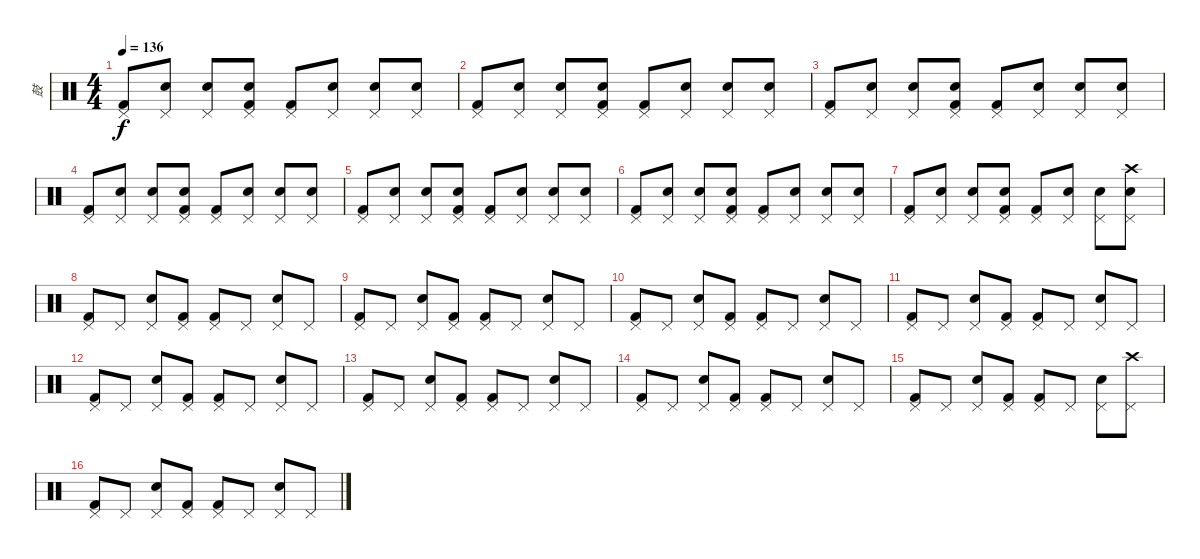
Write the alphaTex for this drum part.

\track ("鼓" "鼓") {instrument percussion}
\staff {score}
\articulation defaults
\ts (4 4)
\tempo 136
\clef neutral
\ks c
("Pedal Hi-Hat (hit)" "Kick (hit) 2").8{dy f} ("Metronome (bell)" "Pedal Hi-Hat (hit)").8 ("Pedal Hi-Hat (hit)" "Electric Snare (hit)").8 ("Metronome (bell)" "Pedal Hi-Hat (hit)" "Kick (hit) 2").8 ("Pedal Hi-Hat (hit)" "Kick (hit) 2").8 ("Metronome (bell)" "Pedal Hi-Hat (hit)").8 ("Pedal Hi-Hat (hit)" "Electric Snare (hit)").8 ("Metronome (bell)" "Pedal Hi-Hat (hit)").8 |
("Pedal Hi-Hat (hit)" "Kick (hit) 2").8 ("Metronome (bell)" "Pedal Hi-Hat (hit)").8 ("Pedal Hi-Hat (hit)" "Electric Snare (hit)").8 ("Metronome (bell)" "Pedal Hi-Hat (hit)" "Kick (hit) 2").8 ("Pedal Hi-Hat (hit)" "Kick (hit) 2").8 ("Metronome (bell)" "Pedal Hi-Hat (hit)").8 ("Pedal Hi-Hat (hit)" "Electric Snare (hit)").8 ("Metronome (bell)" "Pedal Hi-Hat (hit)").8 |
("Pedal Hi-Hat (hit)" "Kick (hit) 2").8 ("Metronome (bell)" "Pedal Hi-Hat (hit)").8 ("Pedal Hi-Hat (hit)" "Electric Snare (hit)").8 ("Metronome (bell)" "Pedal Hi-Hat (hit)" "Kick (hit) 2").8 ("Pedal Hi-Hat (hit)" "Kick (hit) 2").8 ("Metronome (bell)" "Pedal Hi-Hat (hit)").8 ("Pedal Hi-Hat (hit)" "Electric Snare (hit)").8 ("Metronome (bell)" "Pedal Hi-Hat (hit)").8 |
("Pedal Hi-Hat (hit)" "Kick (hit) 2").8 ("Metronome (bell)" "Pedal Hi-Hat (hit)").8 ("Pedal Hi-Hat (hit)" "Electric Snare (hit)").8 ("Metronome (bell)" "Pedal Hi-Hat (hit)" "Kick (hit) 2").8 ("Pedal Hi-Hat (hit)" "Kick (hit) 2").8 ("Metronome (bell)" "Pedal Hi-Hat (hit)").8 ("Pedal Hi-Hat (hit)" "Electric Snare (hit)").8 ("Metronome (bell)" "Pedal Hi-Hat (hit)").8 |
("Pedal Hi-Hat (hit)" "Kick (hit) 2").8 ("Metronome (bell)" "Pedal Hi-Hat (hit)").8 ("Pedal Hi-Hat (hit)" "Electric Snare (hit)").8 ("Metronome (bell)" "Pedal Hi-Hat (hit)" "Kick (hit) 2").8 ("Pedal Hi-Hat (hit)" "Kick (hit) 2").8 ("Metronome (bell)" "Pedal Hi-Hat (hit)").8 ("Pedal Hi-Hat (hit)" "Electric Snare (hit)").8 ("Metronome (bell)" "Pedal Hi-Hat (hit)").8 |
("Pedal Hi-Hat (hit)" "Kick (hit) 2").8 ("Metronome (bell)" "Pedal Hi-Hat (hit)").8 ("Pedal Hi-Hat (hit)" "Electric Snare (hit)").8 ("Metronome (bell)" "Pedal Hi-Hat (hit)" "Kick (hit) 2").8 ("Pedal Hi-Hat (hit)" "Kick (hit) 2").8 ("Metronome (bell)" "Pedal Hi-Hat (hit)").8 ("Pedal Hi-Hat (hit)" "Electric Snare (hit)").8 ("Metronome (bell)" "Pedal Hi-Hat (hit)").8 |
("Pedal Hi-Hat (hit)" "Kick (hit) 2").8 ("Metronome (bell)" "Pedal Hi-Hat (hit)").8 ("Pedal Hi-Hat (hit)" "Electric Snare (hit)").8 ("Metronome (bell)" "Pedal Hi-Hat (hit)" "Kick (hit) 2").8 ("Pedal Hi-Hat (hit)" "Kick (hit) 2").8 ("Metronome (bell)" "Pedal Hi-Hat (hit)").8 ("Pedal Hi-Hat (hit)" "Electric Snare (hit)").8 ("Metronome (bell)" "Pedal Hi-Hat (hit)" "Crash high (hit)").8 |
("Pedal Hi-Hat (hit)" "Kick (hit) 2").8 "Pedal Hi-Hat (hit)".8 ("Pedal Hi-Hat (hit)" "Electric Snare (hit)").8 ("Pedal Hi-Hat (hit)" "Kick (hit) 2").8 ("Pedal Hi-Hat (hit)" "Kick (hit) 2").8 "Pedal Hi-Hat (hit)".8 ("Pedal Hi-Hat (hit)" "Electric Snare (hit)").8 "Pedal Hi-Hat (hit)".8 |
("Pedal Hi-Hat (hit)" "Kick (hit) 2").8 "Pedal Hi-Hat (hit)".8 ("Pedal Hi-Hat (hit)" "Electric Snare (hit)").8 ("Pedal Hi-Hat (hit)" "Kick (hit) 2").8 ("Pedal Hi-Hat (hit)" "Kick (hit) 2").8 "Pedal Hi-Hat (hit)".8 ("Pedal Hi-Hat (hit)" "Electric Snare (hit)").8 "Pedal Hi-Hat (hit)".8 |
("Pedal Hi-Hat (hit)" "Kick (hit) 2").8 "Pedal Hi-Hat (hit)".8 ("Pedal Hi-Hat (hit)" "Electric Snare (hit)").8 ("Pedal Hi-Hat (hit)" "Kick (hit) 2").8 ("Pedal Hi-Hat (hit)" "Kick (hit) 2").8 "Pedal Hi-Hat (hit)".8 ("Pedal Hi-Hat (hit)" "Electric Snare (hit)").8 "Pedal Hi-Hat (hit)".8 |
("Pedal Hi-Hat (hit)" "Kick (hit) 2").8 "Pedal Hi-Hat (hit)".8 ("Pedal Hi-Hat (hit)" "Electric Snare (hit)").8 ("Pedal Hi-Hat (hit)" "Kick (hit) 2").8 ("Pedal Hi-Hat (hit)" "Kick (hit) 2").8 "Pedal Hi-Hat (hit)".8 ("Pedal Hi-Hat (hit)" "Electric Snare (hit)").8 "Pedal Hi-Hat (hit)".8 |
("Pedal Hi-Hat (hit)" "Kick (hit) 2").8 "Pedal Hi-Hat (hit)".8 ("Pedal Hi-Hat (hit)" "Electric Snare (hit)").8 ("Pedal Hi-Hat (hit)" "Kick (hit) 2").8 ("Pedal Hi-Hat (hit)" "Kick (hit) 2").8 "Pedal Hi-Hat (hit)".8 ("Pedal Hi-Hat (hit)" "Electric Snare (hit)").8 "Pedal Hi-Hat (hit)".8 |
("Pedal Hi-Hat (hit)" "Kick (hit) 2").8 "Pedal Hi-Hat (hit)".8 ("Pedal Hi-Hat (hit)" "Electric Snare (hit)").8 ("Pedal Hi-Hat (hit)" "Kick (hit) 2").8 ("Pedal Hi-Hat (hit)" "Kick (hit) 2").8 "Pedal Hi-Hat (hit)".8 ("Pedal Hi-Hat (hit)" "Electric Snare (hit)").8 "Pedal Hi-Hat (hit)".8 |
("Pedal Hi-Hat (hit)" "Kick (hit) 2").8 "Pedal Hi-Hat (hit)".8 ("Pedal Hi-Hat (hit)" "Electric Snare (hit)").8 ("Pedal Hi-Hat (hit)" "Kick (hit) 2").8 ("Pedal Hi-Hat (hit)" "Kick (hit) 2").8 "Pedal Hi-Hat (hit)".8 ("Pedal Hi-Hat (hit)" "Electric Snare (hit)").8 "Pedal Hi-Hat (hit)".8 |
("Pedal Hi-Hat (hit)" "Kick (hit) 2").8 "Pedal Hi-Hat (hit)".8 ("Pedal Hi-Hat (hit)" "Electric Snare (hit)").8 ("Pedal Hi-Hat (hit)" "Kick (hit) 2").8 ("Pedal Hi-Hat (hit)" "Kick (hit) 2").8 "Pedal Hi-Hat (hit)".8 ("Pedal Hi-Hat (hit)" "Electric Snare (hit)").8 ("Pedal Hi-Hat (hit)" "Crash high (hit)").8 |
("Pedal Hi-Hat (hit)" "Kick (hit) 2").8 "Pedal Hi-Hat (hit)".8 ("Pedal Hi-Hat (hit)" "Electric Snare (hit)").8 ("Pedal Hi-Hat (hit)" "Kick (hit) 2").8 ("Pedal Hi-Hat (hit)" "Kick (hit) 2").8 "Pedal Hi-Hat (hit)".8 ("Pedal Hi-Hat (hit)" "Electric Snare (hit)").8 "Pedal Hi-Hat (hit)".8
